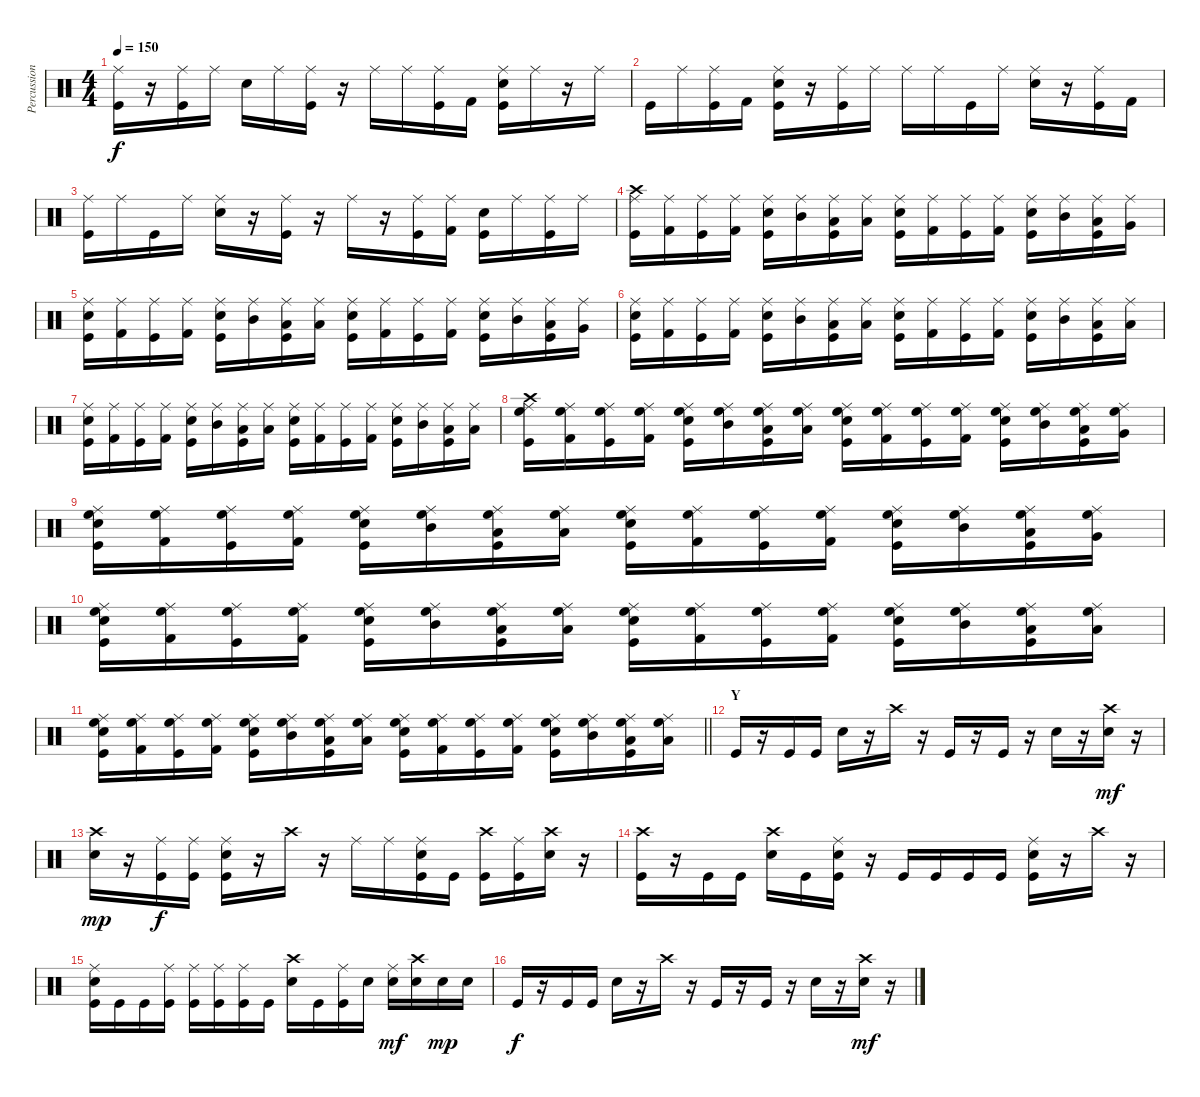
\track ("Percussion" "Percussion") {instrument percussion}
\staff {score}
\articulation defaults
\ts (4 4)
\tempo 150
\clef neutral
\ks c
("Ride (middle)" "Kick (hit)").16{dy f} r.16 ("Ride (middle)" "Kick (hit)").16 "Ride (middle)".16 "Snare (hit) 2".16 "Ride (middle)".16 ("Ride (middle)" "Kick (hit)").16 r.16 "Ride (middle)".16 "Ride (middle)".16 ("Ride (middle)" "Kick (hit)").16 "Kick (hit) 2".16 ("Ride (middle)" "Snare (hit) 2" "Kick (hit)").16 "Ride (middle)".16 r.16 "Ride (middle)".16 |
"Kick (hit)".16 "Ride (middle)".16 ("Ride (middle)" "Kick (hit)").16 "Kick (hit) 2".16 ("Ride (middle)" "Snare (hit) 2" "Kick (hit)").16 r.16 ("Ride (middle)" "Kick (hit)").16 "Ride (middle)".16 "Ride (middle)".16 "Ride (middle)".16 "Kick (hit)".16 "Ride (middle)".16 ("Ride (middle)" "Snare (hit) 2").16 r.16 ("Ride (middle)" "Kick (hit)").16 "Kick (hit) 2".16 |
("Ride (middle)" "Kick (hit)").16 "Ride (middle)".16 "Kick (hit)".16 "Ride (middle)".16 ("Ride (middle)" "Snare (hit) 2").16 r.16 ("Ride (middle)" "Kick (hit)").16 r.16 "Ride (middle)".16 r.16 ("Ride (middle)" "Kick (hit)").16 ("Ride (middle)" "Kick (hit) 2").16 ("Snare (hit) 2" "Kick (hit)").16 "Ride (middle)".16 ("Ride (middle)" "Kick (hit)").16 "Ride (middle)".16 |
("Ride (middle)" "Crash high (hit)" "Kick (hit)").16 ("Ride (middle)" "Kick (hit) 2").16 ("Ride (middle)" "Kick (hit)").16 ("Ride (middle)" "Kick (hit) 2").16 ("Ride (middle)" "Snare (hit) 2" "Kick (hit)").16 ("Ride (middle)" "Mid Tom (hit)").16 ("Ride (middle)" "Low Tom (hit)" "Kick (hit)").16 ("Ride (middle)" "Low Floor Tom (hit)").16 ("Ride (middle)" "Snare (hit) 2" "Kick (hit)").16 ("Ride (middle)" "Kick (hit) 2").16 ("Ride (middle)" "Kick (hit)").16 ("Ride (middle)" "Kick (hit) 2").16 ("Ride (middle)" "Snare (hit) 2" "Kick (hit)").16 ("Ride (middle)" "Mid Tom (hit)").16 ("Ride (middle)" "Low Tom (hit)" "Kick (hit)").16 ("Ride (middle)" "Very Low Tom (hit)").16 |
("Ride (middle)" "Snare (hit) 2" "Kick (hit)").16 ("Ride (middle)" "Kick (hit) 2").16 ("Ride (middle)" "Kick (hit)").16 ("Ride (middle)" "Kick (hit) 2").16 ("Ride (middle)" "Snare (hit) 2" "Kick (hit)").16 ("Ride (middle)" "Mid Tom (hit)").16 ("Ride (middle)" "Low Tom (hit)" "Kick (hit)").16 ("Ride (middle)" "Low Floor Tom (hit)").16 ("Ride (middle)" "Snare (hit) 2" "Kick (hit)").16 ("Ride (middle)" "Kick (hit) 2").16 ("Ride (middle)" "Kick (hit)").16 ("Ride (middle)" "Kick (hit) 2").16 ("Ride (middle)" "Snare (hit) 2" "Kick (hit)").16 ("Ride (middle)" "Mid Tom (hit)").16 ("Ride (middle)" "Low Tom (hit)" "Kick (hit)").16 ("Ride (middle)" "Very Low Tom (hit)").16 |
("Ride (middle)" "Snare (hit) 2" "Kick (hit)").16 ("Ride (middle)" "Kick (hit) 2").16 ("Ride (middle)" "Kick (hit)").16 ("Ride (middle)" "Kick (hit) 2").16 ("Ride (middle)" "Snare (hit) 2" "Kick (hit)").16 ("Ride (middle)" "Mid Tom (hit)").16 ("Ride (middle)" "Low Tom (hit)" "Kick (hit)").16 ("Ride (middle)" "Low Floor Tom (hit)").16 ("Ride (middle)" "Snare (hit) 2" "Kick (hit)").16 ("Ride (middle)" "Kick (hit) 2").16 ("Ride (middle)" "Kick (hit)").16 ("Ride (middle)" "Kick (hit) 2").16 ("Ride (middle)" "Snare (hit) 2" "Kick (hit)").16 ("Ride (middle)" "Mid Tom (hit)").16 ("Ride (middle)" "Low Tom (hit)" "Kick (hit)").16 ("Ride (middle)" "Low Floor Tom (hit)").16 |
("Ride (middle)" "Snare (hit) 2" "Kick (hit)").16 ("Ride (middle)" "Kick (hit) 2").16 ("Ride (middle)" "Kick (hit)").16 ("Ride (middle)" "Kick (hit) 2").16 ("Ride (middle)" "Snare (hit) 2" "Kick (hit)").16 ("Ride (middle)" "Mid Tom (hit)").16 ("Ride (middle)" "Low Tom (hit)" "Kick (hit)").16 ("Ride (middle)" "Low Floor Tom (hit)").16 ("Ride (middle)" "Snare (hit) 2" "Kick (hit)").16 ("Ride (middle)" "Kick (hit) 2").16 ("Ride (middle)" "Kick (hit)").16 ("Ride (middle)" "Kick (hit) 2").16 ("Ride (middle)" "Snare (hit) 2" "Kick (hit)").16 ("Ride (middle)" "Mid Tom (hit)").16 ("Ride (middle)" "Low Tom (hit)" "Kick (hit)").16 ("Ride (middle)" "Low Floor Tom (hit)").16 |
("Ride (middle)" "Crash high (hit)" "High Floor Tom (hit)" "Kick (hit)").16 ("Ride (middle)" "High Floor Tom (hit)" "Kick (hit) 2").16 ("Ride (middle)" "High Floor Tom (hit)" "Kick (hit)").16 ("Ride (middle)" "High Floor Tom (hit)" "Kick (hit) 2").16 ("Ride (middle)" "Snare (hit) 2" "High Floor Tom (hit)" "Kick (hit)").16 ("Ride (middle)" "Mid Tom (hit)" "High Floor Tom (hit)").16 ("Ride (middle)" "Low Tom (hit)" "High Floor Tom (hit)" "Kick (hit)").16 ("Ride (middle)" "Low Floor Tom (hit)" "High Floor Tom (hit)").16 ("Ride (middle)" "Snare (hit) 2" "High Floor Tom (hit)" "Kick (hit)").16 ("Ride (middle)" "High Floor Tom (hit)" "Kick (hit) 2").16 ("Ride (middle)" "High Floor Tom (hit)" "Kick (hit)").16 ("Ride (middle)" "High Floor Tom (hit)" "Kick (hit) 2").16 ("Ride (middle)" "Snare (hit) 2" "High Floor Tom (hit)" "Kick (hit)").16 ("Ride (middle)" "Mid Tom (hit)" "High Floor Tom (hit)").16 ("Ride (middle)" "Low Tom (hit)" "High Floor Tom (hit)" "Kick (hit)").16 ("Ride (middle)" "Very Low Tom (hit)" "High Floor Tom (hit)").16 |
("Ride (middle)" "Snare (hit) 2" "High Floor Tom (hit)" "Kick (hit)").16 ("Ride (middle)" "High Floor Tom (hit)" "Kick (hit) 2").16 ("Ride (middle)" "High Floor Tom (hit)" "Kick (hit)").16 ("Ride (middle)" "High Floor Tom (hit)" "Kick (hit) 2").16 ("Ride (middle)" "Snare (hit) 2" "High Floor Tom (hit)" "Kick (hit)").16 ("Ride (middle)" "Mid Tom (hit)" "High Floor Tom (hit)").16 ("Ride (middle)" "Low Tom (hit)" "High Floor Tom (hit)" "Kick (hit)").16 ("Ride (middle)" "Low Floor Tom (hit)" "High Floor Tom (hit)").16 ("Ride (middle)" "Snare (hit) 2" "High Floor Tom (hit)" "Kick (hit)").16 ("Ride (middle)" "High Floor Tom (hit)" "Kick (hit) 2").16 ("Ride (middle)" "High Floor Tom (hit)" "Kick (hit)").16 ("Ride (middle)" "High Floor Tom (hit)" "Kick (hit) 2").16 ("Ride (middle)" "Snare (hit) 2" "High Floor Tom (hit)" "Kick (hit)").16 ("Ride (middle)" "Mid Tom (hit)" "High Floor Tom (hit)").16 ("Ride (middle)" "Low Tom (hit)" "High Floor Tom (hit)" "Kick (hit)").16 ("Ride (middle)" "Very Low Tom (hit)" "High Floor Tom (hit)").16 |
("Ride (middle)" "Snare (hit) 2" "High Floor Tom (hit)" "Kick (hit)").16 ("Ride (middle)" "High Floor Tom (hit)" "Kick (hit) 2").16 ("Ride (middle)" "High Floor Tom (hit)" "Kick (hit)").16 ("Ride (middle)" "High Floor Tom (hit)" "Kick (hit) 2").16 ("Ride (middle)" "Snare (hit) 2" "High Floor Tom (hit)" "Kick (hit)").16 ("Ride (middle)" "Mid Tom (hit)" "High Floor Tom (hit)").16 ("Ride (middle)" "Low Tom (hit)" "High Floor Tom (hit)" "Kick (hit)").16 ("Ride (middle)" "Low Floor Tom (hit)" "High Floor Tom (hit)").16 ("Ride (middle)" "Snare (hit) 2" "High Floor Tom (hit)" "Kick (hit)").16 ("Ride (middle)" "High Floor Tom (hit)" "Kick (hit) 2").16 ("Ride (middle)" "High Floor Tom (hit)" "Kick (hit)").16 ("Ride (middle)" "High Floor Tom (hit)" "Kick (hit) 2").16 ("Ride (middle)" "Snare (hit) 2" "High Floor Tom (hit)" "Kick (hit)").16 ("Ride (middle)" "Mid Tom (hit)" "High Floor Tom (hit)").16 ("Ride (middle)" "Low Tom (hit)" "High Floor Tom (hit)" "Kick (hit)").16 ("Ride (middle)" "Low Floor Tom (hit)" "High Floor Tom (hit)").16 |
\barLineRight lightlight
("Ride (middle)" "Snare (hit) 2" "High Floor Tom (hit)" "Kick (hit)").16 ("Ride (middle)" "High Floor Tom (hit)" "Kick (hit) 2").16 ("Ride (middle)" "High Floor Tom (hit)" "Kick (hit)").16 ("Ride (middle)" "High Floor Tom (hit)" "Kick (hit) 2").16 ("Ride (middle)" "Snare (hit) 2" "High Floor Tom (hit)" "Kick (hit)").16 ("Ride (middle)" "Mid Tom (hit)" "High Floor Tom (hit)").16 ("Ride (middle)" "Low Tom (hit)" "High Floor Tom (hit)" "Kick (hit)").16 ("Ride (middle)" "Low Floor Tom (hit)" "High Floor Tom (hit)").16 ("Ride (middle)" "Snare (hit) 2" "High Floor Tom (hit)" "Kick (hit)").16 ("Ride (middle)" "High Floor Tom (hit)" "Kick (hit) 2").16 ("Ride (middle)" "High Floor Tom (hit)" "Kick (hit)").16 ("Ride (middle)" "High Floor Tom (hit)" "Kick (hit) 2").16 ("Ride (middle)" "Snare (hit) 2" "High Floor Tom (hit)" "Kick (hit)").16 ("Ride (middle)" "Mid Tom (hit)" "High Floor Tom (hit)").16 ("Ride (middle)" "Low Tom (hit)" "High Floor Tom (hit)" "Kick (hit)").16 ("Ride (middle)" "Low Floor Tom (hit)" "High Floor Tom (hit)").16 |
\section ("" "Y")
"Kick (hit)".16 r.16 "Kick (hit)".16 "Kick (hit)".16 "Snare (hit) 2".16 r.16 "Crash high (hit)".16 r.16 "Kick (hit)".16 r.16 "Kick (hit)".16 r.16 "Snare (hit) 2".16 r.16 ("Crash high (hit)" "Snare (hit) 2").16{dy mf} r.16 |
("Crash high (hit)" "Snare (hit) 2").16{dy mp} r.16 ("Ride (middle)" "Kick (hit)").16{dy f} ("Ride (middle)" "Kick (hit)").16 ("Ride (middle)" "Snare (hit) 2" "Kick (hit)").16 r.16 "Crash high (hit)".16 r.16 "Ride (middle)".16 "Ride (middle)".16 ("Ride (middle)" "Snare (hit) 2" "Kick (hit)").16 "Kick (hit)".16 ("Crash high (hit)" "Kick (hit)").16 ("Ride (middle)" "Kick (hit)").16 ("Crash high (hit)" "Snare (hit) 2").16 r.16 |
("Crash high (hit)" "Kick (hit)").16 r.16 "Kick (hit)".16 "Kick (hit)".16 ("Crash high (hit)" "Snare (hit) 2").16 "Kick (hit)".16 ("Ride (middle)" "Snare (hit) 2" "Kick (hit)").16 r.16 "Kick (hit)".16 "Kick (hit)".16 "Kick (hit)".16 "Kick (hit)".16 ("Ride (middle)" "Snare (hit) 2" "Kick (hit)").16 r.16 "Crash high (hit)".16 r.16 |
("Ride (middle)" "Snare (hit) 2" "Kick (hit)").16 "Kick (hit)".16 "Kick (hit)".16 ("Ride (middle)" "Kick (hit)").16 ("Ride (middle)" "Kick (hit)").16 ("Ride (middle)" "Kick (hit)").16 ("Ride (middle)" "Kick (hit)").16 "Kick (hit)".16 ("Crash high (hit)" "Snare (hit) 2").16 "Kick (hit)".16 ("Ride (middle)" "Kick (hit)").16 "Snare (hit) 2".16 ("Ride (middle)" "Snare (hit) 2").16{dy mf} ("Crash high (hit)" "Snare (hit) 2").16 "Snare (hit) 2".16{dy mp} "Snare (hit) 2".16 |
"Kick (hit)".16{dy f} r.16 "Kick (hit)".16 "Kick (hit)".16 "Snare (hit) 2".16 r.16 "Crash high (hit)".16 r.16 "Kick (hit)".16 r.16 "Kick (hit)".16 r.16 "Snare (hit) 2".16 r.16 ("Crash high (hit)" "Snare (hit) 2").16{dy mf} r.16
